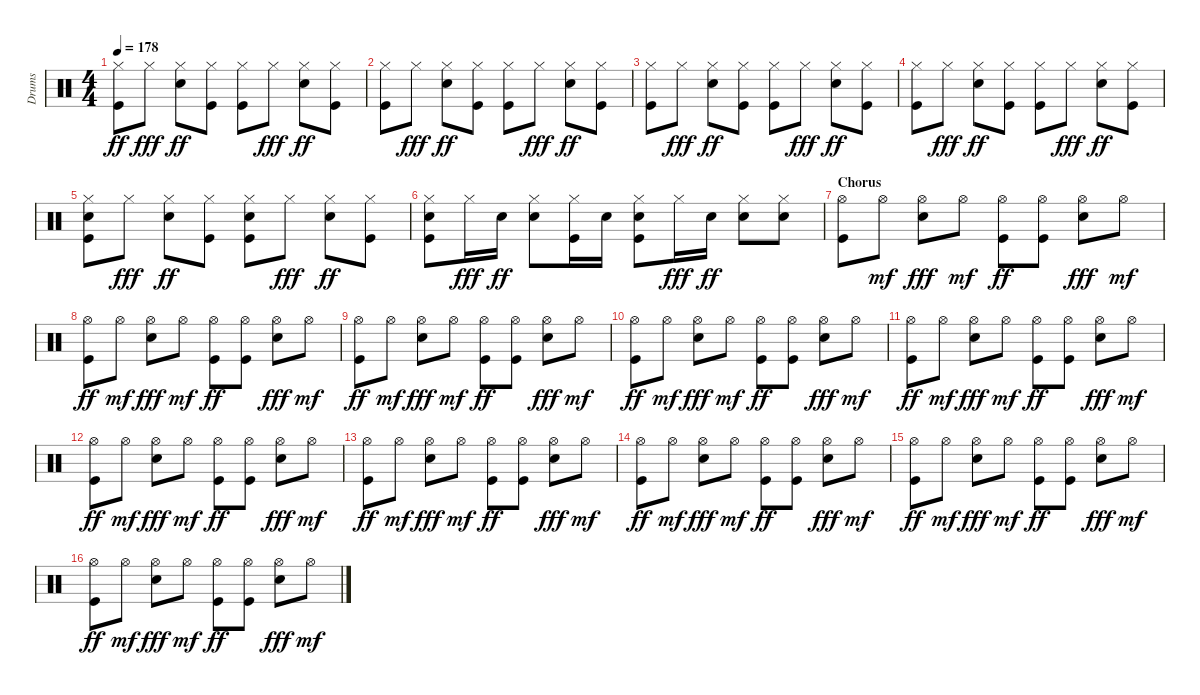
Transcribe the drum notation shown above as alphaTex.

\track ("Drums" "Drums") {instrument percussion}
\staff {score}
\articulation defaults
\ts (4 4)
\tempo 178
\clef neutral
\ks c
("Hi-Hat (closed)" "Kick (hit)").8{dy ff} "Hi-Hat (closed)".8{dy fff} ("Hi-Hat (closed)" "Snare (hit) 2").8{dy ff} ("Hi-Hat (closed)" "Kick (hit)").8 ("Hi-Hat (closed)" "Kick (hit)").8 "Hi-Hat (closed)".8{dy fff} ("Hi-Hat (closed)" "Snare (hit) 2").8{dy ff} ("Hi-Hat (closed)" "Kick (hit)").8 |
("Hi-Hat (closed)" "Kick (hit)").8 "Hi-Hat (closed)".8{dy fff} ("Hi-Hat (closed)" "Snare (hit) 2").8{dy ff} ("Hi-Hat (closed)" "Kick (hit)").8 ("Hi-Hat (closed)" "Kick (hit)").8 "Hi-Hat (closed)".8{dy fff} ("Hi-Hat (closed)" "Snare (hit) 2").8{dy ff} ("Hi-Hat (closed)" "Kick (hit)").8 |
("Hi-Hat (closed)" "Kick (hit)").8 "Hi-Hat (closed)".8{dy fff} ("Hi-Hat (closed)" "Snare (hit) 2").8{dy ff} ("Hi-Hat (closed)" "Kick (hit)").8 ("Hi-Hat (closed)" "Kick (hit)").8 "Hi-Hat (closed)".8{dy fff} ("Hi-Hat (closed)" "Snare (hit) 2").8{dy ff} ("Hi-Hat (closed)" "Kick (hit)").8 |
("Hi-Hat (closed)" "Kick (hit)").8 "Hi-Hat (closed)".8{dy fff} ("Hi-Hat (closed)" "Snare (hit) 2").8{dy ff} ("Hi-Hat (closed)" "Kick (hit)").8 ("Hi-Hat (closed)" "Kick (hit)").8 "Hi-Hat (closed)".8{dy fff} ("Hi-Hat (closed)" "Snare (hit) 2").8{dy ff} ("Hi-Hat (closed)" "Kick (hit)").8 |
("Hi-Hat (closed)" "Snare (hit) 2" "Kick (hit)").8 "Hi-Hat (closed)".8{dy fff} ("Hi-Hat (closed)" "Snare (hit) 2").8{dy ff} ("Hi-Hat (closed)" "Kick (hit)").8 ("Hi-Hat (closed)" "Snare (hit) 2" "Kick (hit)").8 "Hi-Hat (closed)".8{dy fff} ("Hi-Hat (closed)" "Snare (hit) 2").8{dy ff} ("Hi-Hat (closed)" "Kick (hit)").8 |
("Hi-Hat (closed)" "Snare (hit) 2" "Kick (hit)").8 "Hi-Hat (closed)".16{dy fff} "Snare (hit) 2".16{dy ff} ("Hi-Hat (closed)" "Snare (hit) 2").8 ("Hi-Hat (closed)" "Kick (hit)").16 "Snare (hit) 2".16 ("Hi-Hat (closed)" "Snare (hit) 2" "Kick (hit)").8 "Hi-Hat (closed)".16{dy fff} "Snare (hit) 2".16{dy ff} ("Hi-Hat (closed)" "Snare (hit) 2").8 ("Hi-Hat (closed)" "Snare (hit) 2").8 |
\section ("" "Chorus")
("Hi-Hat (open)" "Kick (hit)").8 "Hi-Hat (open)".8{dy mf} ("Hi-Hat (open)" "Snare (hit) 2").8{dy fff} "Hi-Hat (open)".8{dy mf} ("Hi-Hat (open)" "Kick (hit)").8{dy ff} ("Hi-Hat (open)" "Kick (hit)").8 ("Hi-Hat (open)" "Snare (hit) 2").8{dy fff} "Hi-Hat (open)".8{dy mf} |
("Hi-Hat (open)" "Kick (hit)").8{dy ff} "Hi-Hat (open)".8{dy mf} ("Hi-Hat (open)" "Snare (hit) 2").8{dy fff} "Hi-Hat (open)".8{dy mf} ("Hi-Hat (open)" "Kick (hit)").8{dy ff} ("Hi-Hat (open)" "Kick (hit)").8 ("Hi-Hat (open)" "Snare (hit) 2").8{dy fff} "Hi-Hat (open)".8{dy mf} |
("Hi-Hat (open)" "Kick (hit)").8{dy ff} "Hi-Hat (open)".8{dy mf} ("Hi-Hat (open)" "Snare (hit) 2").8{dy fff} "Hi-Hat (open)".8{dy mf} ("Hi-Hat (open)" "Kick (hit)").8{dy ff} ("Hi-Hat (open)" "Kick (hit)").8 ("Hi-Hat (open)" "Snare (hit) 2").8{dy fff} "Hi-Hat (open)".8{dy mf} |
("Hi-Hat (open)" "Kick (hit)").8{dy ff} "Hi-Hat (open)".8{dy mf} ("Hi-Hat (open)" "Snare (hit) 2").8{dy fff} "Hi-Hat (open)".8{dy mf} ("Hi-Hat (open)" "Kick (hit)").8{dy ff} ("Hi-Hat (open)" "Kick (hit)").8 ("Hi-Hat (open)" "Snare (hit) 2").8{dy fff} "Hi-Hat (open)".8{dy mf} |
("Hi-Hat (open)" "Kick (hit)").8{dy ff} "Hi-Hat (open)".8{dy mf} ("Hi-Hat (open)" "Snare (hit) 2").8{dy fff} "Hi-Hat (open)".8{dy mf} ("Hi-Hat (open)" "Kick (hit)").8{dy ff} ("Hi-Hat (open)" "Kick (hit)").8 ("Hi-Hat (open)" "Snare (hit) 2").8{dy fff} "Hi-Hat (open)".8{dy mf} |
("Hi-Hat (open)" "Kick (hit)").8{dy ff} "Hi-Hat (open)".8{dy mf} ("Hi-Hat (open)" "Snare (hit) 2").8{dy fff} "Hi-Hat (open)".8{dy mf} ("Hi-Hat (open)" "Kick (hit)").8{dy ff} ("Hi-Hat (open)" "Kick (hit)").8 ("Hi-Hat (open)" "Snare (hit) 2").8{dy fff} "Hi-Hat (open)".8{dy mf} |
("Hi-Hat (open)" "Kick (hit)").8{dy ff} "Hi-Hat (open)".8{dy mf} ("Hi-Hat (open)" "Snare (hit) 2").8{dy fff} "Hi-Hat (open)".8{dy mf} ("Hi-Hat (open)" "Kick (hit)").8{dy ff} ("Hi-Hat (open)" "Kick (hit)").8 ("Hi-Hat (open)" "Snare (hit) 2").8{dy fff} "Hi-Hat (open)".8{dy mf} |
("Hi-Hat (open)" "Kick (hit)").8{dy ff} "Hi-Hat (open)".8{dy mf} ("Hi-Hat (open)" "Snare (hit) 2").8{dy fff} "Hi-Hat (open)".8{dy mf} ("Hi-Hat (open)" "Kick (hit)").8{dy ff} ("Hi-Hat (open)" "Kick (hit)").8 ("Hi-Hat (open)" "Snare (hit) 2").8{dy fff} "Hi-Hat (open)".8{dy mf} |
("Hi-Hat (open)" "Kick (hit)").8{dy ff} "Hi-Hat (open)".8{dy mf} ("Hi-Hat (open)" "Snare (hit) 2").8{dy fff} "Hi-Hat (open)".8{dy mf} ("Hi-Hat (open)" "Kick (hit)").8{dy ff} ("Hi-Hat (open)" "Kick (hit)").8 ("Hi-Hat (open)" "Snare (hit) 2").8{dy fff} "Hi-Hat (open)".8{dy mf} |
("Hi-Hat (open)" "Kick (hit)").8{dy ff} "Hi-Hat (open)".8{dy mf} ("Hi-Hat (open)" "Snare (hit) 2").8{dy fff} "Hi-Hat (open)".8{dy mf} ("Hi-Hat (open)" "Kick (hit)").8{dy ff} ("Hi-Hat (open)" "Kick (hit)").8 ("Hi-Hat (open)" "Snare (hit) 2").8{dy fff} "Hi-Hat (open)".8{dy mf}
